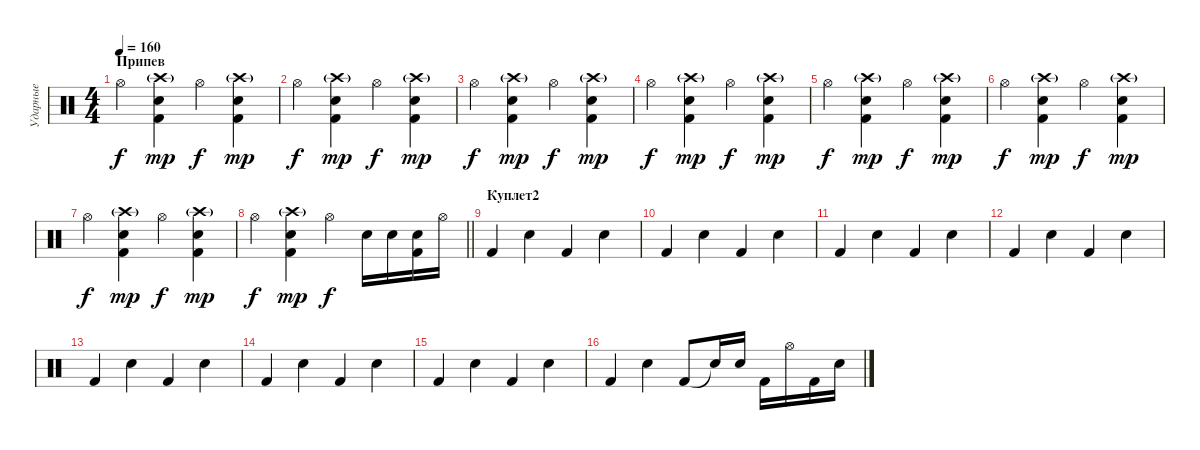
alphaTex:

\track ("Ударные" "Ударные") {instrument percussion}
\staff {score}
\articulation defaults
\ts (4 4)
\section ("" "Припев")
\tempo 160
\clef neutral
\ks c "Hi-Hat (open)".4{dy f}
("Crash high (hit)"{g} "Kick (hit) 2" "Snare (hit) 2").4{dy mp} "Hi-Hat (open)".4{dy f} ("Crash high (hit)"{g} "Kick (hit) 2" "Snare (hit) 2").4{dy mp} |
"Hi-Hat (open)".4{dy f} ("Crash high (hit)"{g} "Kick (hit) 2" "Snare (hit) 2").4{dy mp} "Hi-Hat (open)".4{dy f} ("Crash high (hit)"{g} "Kick (hit) 2" "Snare (hit) 2").4{dy mp} |
"Hi-Hat (open)".4{dy f} ("Crash high (hit)"{g} "Kick (hit) 2" "Snare (hit) 2").4{dy mp} "Hi-Hat (open)".4{dy f} ("Crash high (hit)"{g} "Kick (hit) 2" "Snare (hit) 2").4{dy mp} |
"Hi-Hat (open)".4{dy f} ("Crash high (hit)"{g} "Kick (hit) 2" "Snare (hit) 2").4{dy mp} "Hi-Hat (open)".4{dy f} ("Crash high (hit)"{g} "Kick (hit) 2" "Snare (hit) 2").4{dy mp} |
"Hi-Hat (open)".4{dy f} ("Crash high (hit)"{g} "Kick (hit) 2" "Snare (hit) 2").4{dy mp} "Hi-Hat (open)".4{dy f} ("Crash high (hit)"{g} "Kick (hit) 2" "Snare (hit) 2").4{dy mp} |
"Hi-Hat (open)".4{dy f} ("Crash high (hit)"{g} "Kick (hit) 2" "Snare (hit) 2").4{dy mp} "Hi-Hat (open)".4{dy f} ("Crash high (hit)"{g} "Kick (hit) 2" "Snare (hit) 2").4{dy mp} |
"Hi-Hat (open)".4{dy f} ("Crash high (hit)"{g} "Kick (hit) 2" "Snare (hit) 2").4{dy mp} "Hi-Hat (open)".4{dy f} ("Crash high (hit)"{g} "Kick (hit) 2" "Snare (hit) 2").4{dy mp} |
\barLineRight lightlight "Hi-Hat (open)".4{dy f}
("Crash high (hit)"{g} "Kick (hit) 2" "Snare (hit) 2").4{dy mp} "Hi-Hat (open)".4{dy f} "Electric Snare (hit)".16 "Snare (hit) 2".16 ("Electric Snare (hit)" "Kick (hit) 2").16 "Hi-Hat (open)".16 |
\section ("" "Куплет2")
"Kick (hit) 2".4 "Electric Snare (hit)".4 "Kick (hit) 2".4 "Electric Snare (hit)".4 |
"Kick (hit) 2".4 "Electric Snare (hit)".4 "Kick (hit) 2".4 "Electric Snare (hit)".4 |
"Kick (hit) 2".4 "Electric Snare (hit)".4 "Kick (hit) 2".4 "Electric Snare (hit)".4 |
"Kick (hit) 2".4 "Electric Snare (hit)".4 "Kick (hit) 2".4 "Electric Snare (hit)".4 |
"Kick (hit) 2".4 "Electric Snare (hit)".4 "Kick (hit) 2".4 "Electric Snare (hit)".4 |
"Kick (hit) 2".4 "Electric Snare (hit)".4 "Kick (hit) 2".4 "Electric Snare (hit)".4 |
"Kick (hit) 2".4 "Electric Snare (hit)".4 "Kick (hit) 2".4 "Electric Snare (hit)".4 |
"Kick (hit) 2".4 "Electric Snare (hit)".4 "Kick (hit) 2".8 "Snare (hit)"{t}.16 "Snare (hit) 2".16 "Kick (hit) 2".16 "Hi-Hat (open)".16 "Kick (hit) 2".16 "Electric Snare (hit)".16
